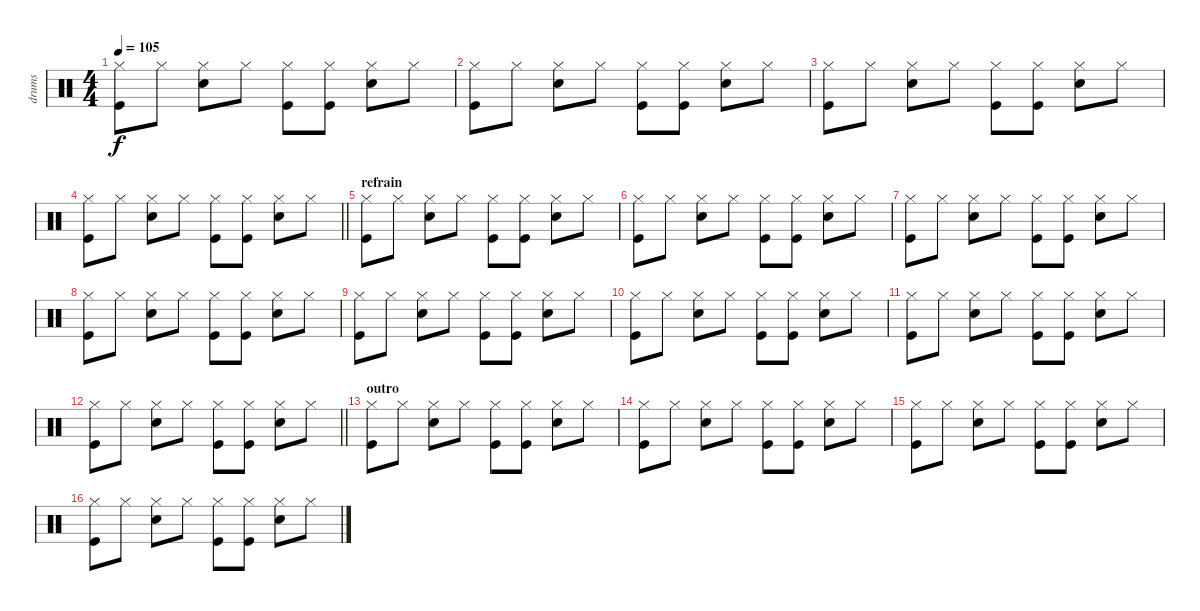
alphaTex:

\track ("drums" "drums") {instrument percussion}
\staff {score}
\articulation defaults
\ts (4 4)
\tempo 105
\clef neutral
\ks c
("Hi-Hat (closed)" "Kick (hit)").8{dy f} "Hi-Hat (closed)".8 ("Hi-Hat (closed)" "Snare (hit) 2").8 "Hi-Hat (closed)".8 ("Hi-Hat (closed)" "Kick (hit)").8 ("Hi-Hat (closed)" "Kick (hit)").8 ("Hi-Hat (closed)" "Snare (hit) 2").8 "Hi-Hat (closed)".8 |
("Hi-Hat (closed)" "Kick (hit)").8 "Hi-Hat (closed)".8 ("Hi-Hat (closed)" "Snare (hit) 2").8 "Hi-Hat (closed)".8 ("Hi-Hat (closed)" "Kick (hit)").8 ("Hi-Hat (closed)" "Kick (hit)").8 ("Hi-Hat (closed)" "Snare (hit) 2").8 "Hi-Hat (closed)".8 |
("Hi-Hat (closed)" "Kick (hit)").8 "Hi-Hat (closed)".8 ("Hi-Hat (closed)" "Snare (hit) 2").8 "Hi-Hat (closed)".8 ("Hi-Hat (closed)" "Kick (hit)").8 ("Hi-Hat (closed)" "Kick (hit)").8 ("Hi-Hat (closed)" "Snare (hit) 2").8 "Hi-Hat (closed)".8 |
\barLineRight lightlight
("Hi-Hat (closed)" "Kick (hit)").8 "Hi-Hat (closed)".8 ("Hi-Hat (closed)" "Snare (hit) 2").8 "Hi-Hat (closed)".8 ("Hi-Hat (closed)" "Kick (hit)").8 ("Hi-Hat (closed)" "Kick (hit)").8 ("Hi-Hat (closed)" "Snare (hit) 2").8 "Hi-Hat (closed)".8 |
\section ("" "refrain")
("Hi-Hat (closed)" "Kick (hit)").8 "Hi-Hat (closed)".8 ("Hi-Hat (closed)" "Snare (hit) 2").8 "Hi-Hat (closed)".8 ("Hi-Hat (closed)" "Kick (hit)").8 ("Hi-Hat (closed)" "Kick (hit)").8 ("Hi-Hat (closed)" "Snare (hit) 2").8 "Hi-Hat (closed)".8 |
("Hi-Hat (closed)" "Kick (hit)").8 "Hi-Hat (closed)".8 ("Hi-Hat (closed)" "Snare (hit) 2").8 "Hi-Hat (closed)".8 ("Hi-Hat (closed)" "Kick (hit)").8 ("Hi-Hat (closed)" "Kick (hit)").8 ("Hi-Hat (closed)" "Snare (hit) 2").8 "Hi-Hat (closed)".8 |
("Hi-Hat (closed)" "Kick (hit)").8 "Hi-Hat (closed)".8 ("Hi-Hat (closed)" "Snare (hit) 2").8 "Hi-Hat (closed)".8 ("Hi-Hat (closed)" "Kick (hit)").8 ("Hi-Hat (closed)" "Kick (hit)").8 ("Hi-Hat (closed)" "Snare (hit) 2").8 "Hi-Hat (closed)".8 |
("Hi-Hat (closed)" "Kick (hit)").8 "Hi-Hat (closed)".8 ("Hi-Hat (closed)" "Snare (hit) 2").8 "Hi-Hat (closed)".8 ("Hi-Hat (closed)" "Kick (hit)").8 ("Hi-Hat (closed)" "Kick (hit)").8 ("Hi-Hat (closed)" "Snare (hit) 2").8 "Hi-Hat (closed)".8 |
("Hi-Hat (closed)" "Kick (hit)").8 "Hi-Hat (closed)".8 ("Hi-Hat (closed)" "Snare (hit) 2").8 "Hi-Hat (closed)".8 ("Hi-Hat (closed)" "Kick (hit)").8 ("Hi-Hat (closed)" "Kick (hit)").8 ("Hi-Hat (closed)" "Snare (hit) 2").8 "Hi-Hat (closed)".8 |
("Hi-Hat (closed)" "Kick (hit)").8 "Hi-Hat (closed)".8 ("Hi-Hat (closed)" "Snare (hit) 2").8 "Hi-Hat (closed)".8 ("Hi-Hat (closed)" "Kick (hit)").8 ("Hi-Hat (closed)" "Kick (hit)").8 ("Hi-Hat (closed)" "Snare (hit) 2").8 "Hi-Hat (closed)".8 |
("Hi-Hat (closed)" "Kick (hit)").8 "Hi-Hat (closed)".8 ("Hi-Hat (closed)" "Snare (hit) 2").8 "Hi-Hat (closed)".8 ("Hi-Hat (closed)" "Kick (hit)").8 ("Hi-Hat (closed)" "Kick (hit)").8 ("Hi-Hat (closed)" "Snare (hit) 2").8 "Hi-Hat (closed)".8 |
\barLineRight lightlight
("Hi-Hat (closed)" "Kick (hit)").8 "Hi-Hat (closed)".8 ("Hi-Hat (closed)" "Snare (hit) 2").8 "Hi-Hat (closed)".8 ("Hi-Hat (closed)" "Kick (hit)").8 ("Hi-Hat (closed)" "Kick (hit)").8 ("Hi-Hat (closed)" "Snare (hit) 2").8 "Hi-Hat (closed)".8 |
\section ("" "outro")
("Hi-Hat (closed)" "Kick (hit)").8 "Hi-Hat (closed)".8 ("Hi-Hat (closed)" "Snare (hit) 2").8 "Hi-Hat (closed)".8 ("Hi-Hat (closed)" "Kick (hit)").8 ("Hi-Hat (closed)" "Kick (hit)").8 ("Hi-Hat (closed)" "Snare (hit) 2").8 "Hi-Hat (closed)".8 |
("Hi-Hat (closed)" "Kick (hit)").8 "Hi-Hat (closed)".8 ("Hi-Hat (closed)" "Snare (hit) 2").8 "Hi-Hat (closed)".8 ("Hi-Hat (closed)" "Kick (hit)").8 ("Hi-Hat (closed)" "Kick (hit)").8 ("Hi-Hat (closed)" "Snare (hit) 2").8 "Hi-Hat (closed)".8 |
("Hi-Hat (closed)" "Kick (hit)").8 "Hi-Hat (closed)".8 ("Hi-Hat (closed)" "Snare (hit) 2").8 "Hi-Hat (closed)".8 ("Hi-Hat (closed)" "Kick (hit)").8 ("Hi-Hat (closed)" "Kick (hit)").8 ("Hi-Hat (closed)" "Snare (hit) 2").8 "Hi-Hat (closed)".8 |
("Hi-Hat (closed)" "Kick (hit)").8 "Hi-Hat (closed)".8 ("Hi-Hat (closed)" "Snare (hit) 2").8 "Hi-Hat (closed)".8 ("Hi-Hat (closed)" "Kick (hit)").8 ("Hi-Hat (closed)" "Kick (hit)").8 ("Hi-Hat (closed)" "Snare (hit) 2").8 "Hi-Hat (closed)".8
